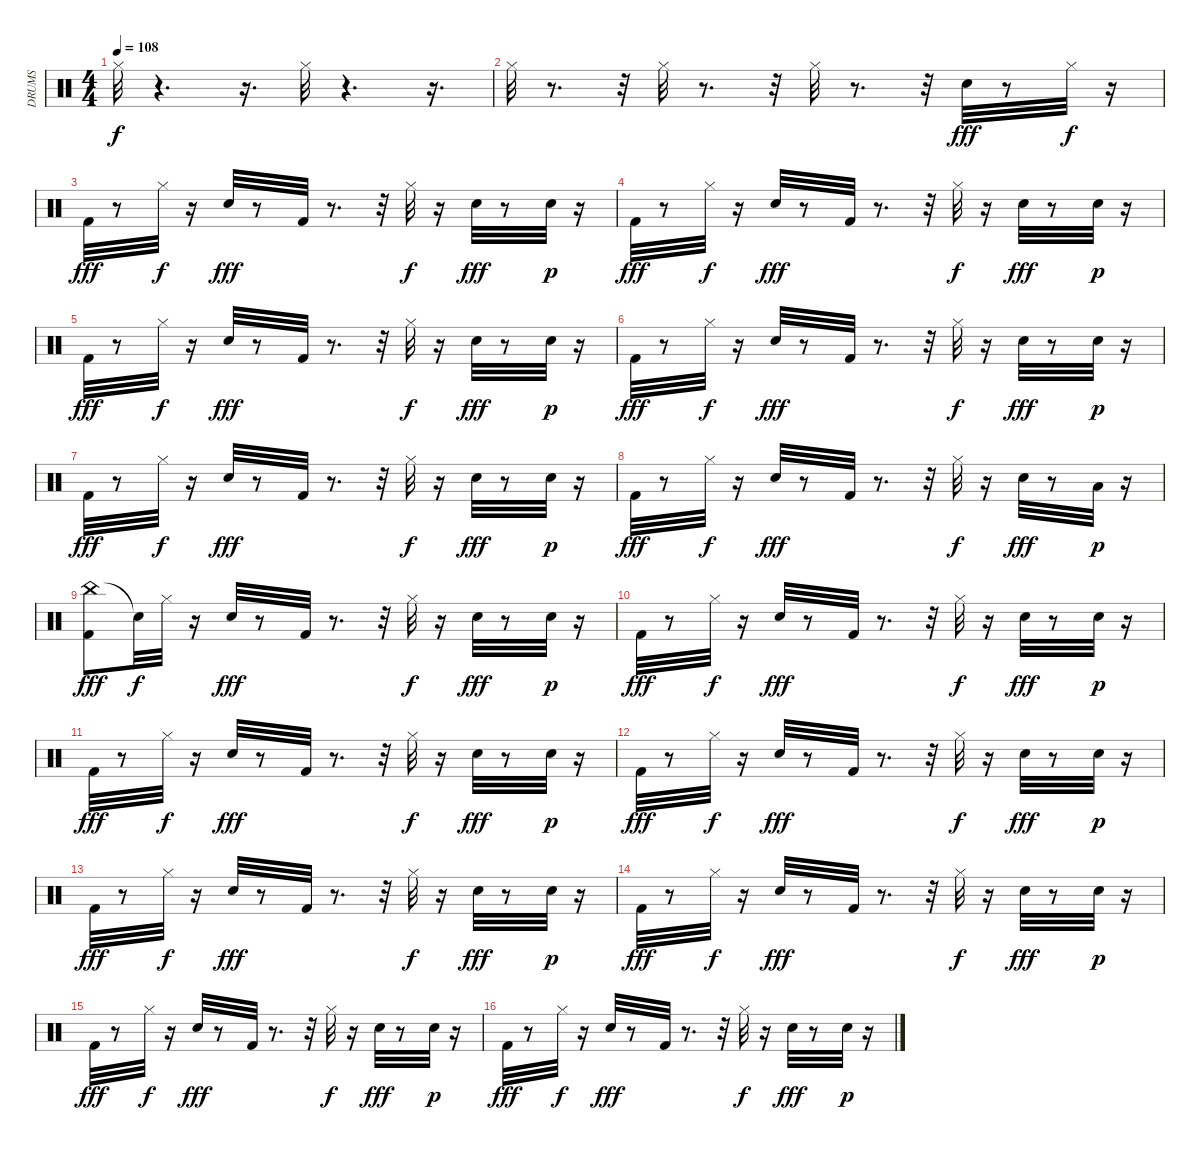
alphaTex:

\track ("DRUMS" "DRUMS") {instrument percussion}
\staff {score}
\articulation defaults
\ts (4 4)
\tempo 108
\clef neutral
\ks c "Hi-Hat (closed)".32{dy f}
r.4{d} r.16{d} "Hi-Hat (closed)".32 r.4{d} r.16{d} |
"Hi-Hat (closed)".32 r.8{d} r.32 "Hi-Hat (closed)".32 r.8{d} r.32 "Hi-Hat (closed)".32 r.8{d} r.32 "Snare (hit) 2".32{dy fff} r.8 "Hi-Hat (closed)".32{dy f} r.16 |
"Kick (hit) 2".32{dy fff} r.8 "Hi-Hat (closed)".32{dy f} r.16 "Snare (hit) 2".32{dy fff} r.8 "Kick (hit) 2".32 r.8{d} r.32 "Hi-Hat (closed)".32{dy f} r.16 "Snare (hit) 2".32{dy fff} r.8 "Snare (hit) 2".32{dy p} r.16 |
"Kick (hit) 2".32{dy fff} r.8 "Hi-Hat (closed)".32{dy f} r.16 "Snare (hit) 2".32{dy fff} r.8 "Kick (hit) 2".32 r.8{d} r.32 "Hi-Hat (closed)".32{dy f} r.16 "Snare (hit) 2".32{dy fff} r.8 "Snare (hit) 2".32{dy p} r.16 |
"Kick (hit) 2".32{dy fff} r.8 "Hi-Hat (closed)".32{dy f} r.16 "Snare (hit) 2".32{dy fff} r.8 "Kick (hit) 2".32 r.8{d} r.32 "Hi-Hat (closed)".32{dy f} r.16 "Snare (hit) 2".32{dy fff} r.8 "Snare (hit) 2".32{dy p} r.16 |
"Kick (hit) 2".32{dy fff} r.8 "Hi-Hat (closed)".32{dy f} r.16 "Snare (hit) 2".32{dy fff} r.8 "Kick (hit) 2".32 r.8{d} r.32 "Hi-Hat (closed)".32{dy f} r.16 "Snare (hit) 2".32{dy fff} r.8 "Snare (hit) 2".32{dy p} r.16 |
"Kick (hit) 2".32{dy fff} r.8 "Hi-Hat (closed)".32{dy f} r.16 "Snare (hit) 2".32{dy fff} r.8 "Kick (hit) 2".32 r.8{d} r.32 "Hi-Hat (closed)".32{dy f} r.16 "Snare (hit) 2".32{dy fff} r.8 "Snare (hit) 2".32{dy p} r.16 |
"Kick (hit) 2".32{dy fff} r.8 "Hi-Hat (closed)".32{dy f} r.16 "Snare (hit) 2".32{dy fff} r.8 "Kick (hit) 2".32 r.8{d} r.32 "Hi-Hat (closed)".32{dy f} r.16 "Snare (hit) 2".32{dy fff} r.8 "Low Floor Tom (hit)".32{dy p} r.16 |
("China (hit)" "Kick (hit) 2").8{dy fff} "Snare (hit)"{t}.32{dy f} "Hi-Hat (closed)".32 r.16 "Snare (hit) 2".32{dy fff} r.8 "Kick (hit) 2".32 r.8{d} r.32 "Hi-Hat (closed)".32{dy f} r.16 "Snare (hit) 2".32{dy fff} r.8 "Snare (hit) 2".32{dy p} r.16 |
"Kick (hit) 2".32{dy fff} r.8 "Hi-Hat (closed)".32{dy f} r.16 "Snare (hit) 2".32{dy fff} r.8 "Kick (hit) 2".32 r.8{d} r.32 "Hi-Hat (closed)".32{dy f} r.16 "Snare (hit) 2".32{dy fff} r.8 "Snare (hit) 2".32{dy p} r.16 |
"Kick (hit) 2".32{dy fff} r.8 "Hi-Hat (closed)".32{dy f} r.16 "Snare (hit) 2".32{dy fff} r.8 "Kick (hit) 2".32 r.8{d} r.32 "Hi-Hat (closed)".32{dy f} r.16 "Snare (hit) 2".32{dy fff} r.8 "Snare (hit) 2".32{dy p} r.16 |
"Kick (hit) 2".32{dy fff} r.8 "Hi-Hat (closed)".32{dy f} r.16 "Snare (hit) 2".32{dy fff} r.8 "Kick (hit) 2".32 r.8{d} r.32 "Hi-Hat (closed)".32{dy f} r.16 "Snare (hit) 2".32{dy fff} r.8 "Snare (hit) 2".32{dy p} r.16 |
"Kick (hit) 2".32{dy fff} r.8 "Hi-Hat (closed)".32{dy f} r.16 "Snare (hit) 2".32{dy fff} r.8 "Kick (hit) 2".32 r.8{d} r.32 "Hi-Hat (closed)".32{dy f} r.16 "Snare (hit) 2".32{dy fff} r.8 "Snare (hit) 2".32{dy p} r.16 |
"Kick (hit) 2".32{dy fff} r.8 "Hi-Hat (closed)".32{dy f} r.16 "Snare (hit) 2".32{dy fff} r.8 "Kick (hit) 2".32 r.8{d} r.32 "Hi-Hat (closed)".32{dy f} r.16 "Snare (hit) 2".32{dy fff} r.8 "Snare (hit) 2".32{dy p} r.16 |
"Kick (hit) 2".32{dy fff} r.8 "Hi-Hat (closed)".32{dy f} r.16 "Snare (hit) 2".32{dy fff} r.8 "Kick (hit) 2".32 r.8{d} r.32 "Hi-Hat (closed)".32{dy f} r.16 "Snare (hit) 2".32{dy fff} r.8 "Snare (hit) 2".32{dy p} r.16 |
"Kick (hit) 2".32{dy fff} r.8 "Hi-Hat (closed)".32{dy f} r.16 "Snare (hit) 2".32{dy fff} r.8 "Kick (hit) 2".32 r.8{d} r.32 "Hi-Hat (closed)".32{dy f} r.16 "Snare (hit) 2".32{dy fff} r.8 "Snare (hit) 2".32{dy p} r.16
